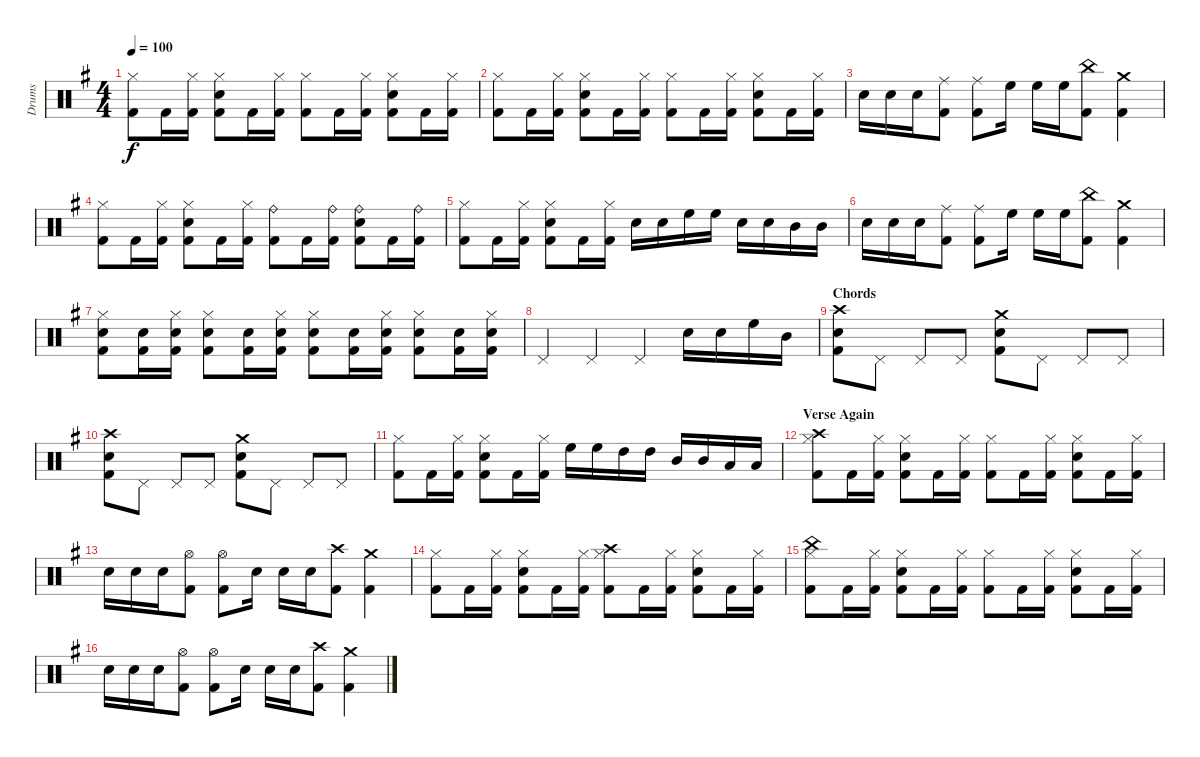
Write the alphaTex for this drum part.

\track ("Drums" "Drums") {instrument percussion}
\staff {score}
\articulation defaults
\ts (4 4)
\tempo 100
\clef neutral
\ks eminor
("Hi-Hat (closed)" "Kick (hit) 2").8{dy f} "Kick (hit) 2".16 ("Hi-Hat (closed)" "Kick (hit) 2").16 ("Hi-Hat (closed)" "Kick (hit) 2" "Snare (hit) 2").8 "Kick (hit) 2".16 ("Hi-Hat (closed)" "Kick (hit) 2").16 ("Hi-Hat (closed)" "Kick (hit) 2").8 "Kick (hit) 2".16 ("Hi-Hat (closed)" "Kick (hit) 2").16 ("Hi-Hat (closed)" "Kick (hit) 2" "Snare (hit) 2").8 "Kick (hit) 2".16 ("Hi-Hat (closed)" "Kick (hit) 2").16 |
("Hi-Hat (closed)" "Kick (hit) 2").8 "Kick (hit) 2".16 ("Hi-Hat (closed)" "Kick (hit) 2").16 ("Hi-Hat (closed)" "Kick (hit) 2" "Snare (hit) 2").8 "Kick (hit) 2".16 ("Hi-Hat (closed)" "Kick (hit) 2").16 ("Hi-Hat (closed)" "Kick (hit) 2").8 "Kick (hit) 2".16 ("Hi-Hat (closed)" "Kick (hit) 2").16 ("Hi-Hat (closed)" "Kick (hit) 2" "Snare (hit) 2").8 "Kick (hit) 2".16 ("Hi-Hat (closed)" "Kick (hit) 2").16 |
"Snare (hit) 2".16 "Snare (hit) 2".16 "Snare (hit) 2".16 ("Ride (middle)" "Kick (hit) 2").8 ("Ride (middle)" "Kick (hit) 2").8 "High Floor Tom (hit)".16 "High Floor Tom (hit)".16 "High Floor Tom (hit)".16 ("China (hit)" "Kick (hit) 2").8 ("Crash medium (hit)" "Kick (hit) 2").4 |
("Hi-Hat (closed)" "Kick (hit) 2").8 "Kick (hit) 2".16 ("Hi-Hat (closed)" "Kick (hit) 2").16 ("Hi-Hat (closed)" "Kick (hit) 2" "Snare (hit) 2").8 "Kick (hit) 2".16 ("Hi-Hat (closed)" "Kick (hit) 2").16 ("Ride (bell)" "Kick (hit) 2").8 "Kick (hit) 2".16 ("Ride (bell)" "Kick (hit) 2").16 ("Ride (bell)" "Kick (hit) 2" "Snare (hit) 2").8 "Kick (hit) 2".16 ("Ride (bell)" "Kick (hit) 2").16 |
("Hi-Hat (closed)" "Kick (hit) 2").8 "Kick (hit) 2".16 ("Hi-Hat (closed)" "Kick (hit) 2").16 ("Hi-Hat (closed)" "Kick (hit) 2" "Snare (hit) 2").8 "Kick (hit) 2".16 ("Hi-Hat (closed)" "Kick (hit) 2").16 "Snare (hit) 2".16 "Snare (hit) 2".16 "High Floor Tom (hit)".16 "High Floor Tom (hit)".16 "Snare (hit) 2".16 "Snare (hit) 2".16 "Mid Tom (hit)".16 "Mid Tom (hit)".16 |
"Snare (hit) 2".16 "Snare (hit) 2".16 "Snare (hit) 2".16 ("Ride (middle)" "Kick (hit) 2").8 ("Ride (middle)" "Kick (hit) 2").8 "High Floor Tom (hit)".16 "High Floor Tom (hit)".16 "High Floor Tom (hit)".16 ("China (hit)" "Kick (hit) 2").8 ("Crash medium (hit)" "Kick (hit) 2").4 |
("Hi-Hat (closed)" "Kick (hit) 2" "Snare (hit) 2").8 ("Kick (hit) 2" "Snare (hit) 2").16 ("Hi-Hat (closed)" "Kick (hit) 2" "Snare (hit) 2").16 ("Hi-Hat (closed)" "Kick (hit) 2" "Snare (hit) 2").8 ("Kick (hit) 2" "Snare (hit) 2").16 ("Hi-Hat (closed)" "Kick (hit) 2" "Snare (hit) 2").16 ("Hi-Hat (closed)" "Kick (hit) 2" "Snare (hit) 2").8 ("Kick (hit) 2" "Snare (hit) 2").16 ("Hi-Hat (closed)" "Kick (hit) 2" "Snare (hit) 2").16 ("Hi-Hat (closed)" "Kick (hit) 2" "Snare (hit) 2").8 ("Kick (hit) 2" "Snare (hit) 2").16 ("Hi-Hat (closed)" "Kick (hit) 2" "Snare (hit) 2").16 |
"Pedal Hi-Hat (hit)".4 "Pedal Hi-Hat (hit)".4 "Pedal Hi-Hat (hit)".4 "Snare (hit) 2".16 "Snare (hit) 2".16 "High Floor Tom (hit)".16 "Mid Tom (hit)".16 |
\section ("" "Chords")
("Crash high (hit)" "Snare (hit) 2" "Kick (hit) 2").8 "Pedal Hi-Hat (hit)".8 "Pedal Hi-Hat (hit)".8 "Pedal Hi-Hat (hit)".8 ("Crash medium (hit)" "Snare (hit) 2" "Kick (hit) 2").8 "Pedal Hi-Hat (hit)".8 "Pedal Hi-Hat (hit)".8 "Pedal Hi-Hat (hit)".8 |
("Crash high (hit)" "Snare (hit) 2" "Kick (hit) 2").8 "Pedal Hi-Hat (hit)".8 "Pedal Hi-Hat (hit)".8 "Pedal Hi-Hat (hit)".8 ("Crash medium (hit)" "Snare (hit) 2" "Kick (hit) 2").8 "Pedal Hi-Hat (hit)".8 "Pedal Hi-Hat (hit)".8 "Pedal Hi-Hat (hit)".8 |
("Hi-Hat (closed)" "Kick (hit) 2").8 "Kick (hit) 2".16 ("Hi-Hat (closed)" "Kick (hit) 2").16 ("Hi-Hat (closed)" "Kick (hit) 2" "Snare (hit) 2").8 "Kick (hit) 2".16 ("Hi-Hat (closed)" "Kick (hit) 2").16 "High Floor Tom (hit)".16 "High Floor Tom (hit)".16 "High Tom (hit)".16 "High Tom (hit)".16 "Mid Tom (hit)".16 "Mid Tom (hit)".16 "Low Tom (hit)".16 "Low Tom (hit)".16 |
\section ("" "Verse Again")
("Hi-Hat (closed)" "Kick (hit) 2" "Crash high (hit)").8 "Kick (hit) 2".16 ("Hi-Hat (closed)" "Kick (hit) 2").16 ("Hi-Hat (closed)" "Kick (hit) 2" "Snare (hit) 2").8 "Kick (hit) 2".16 ("Hi-Hat (closed)" "Kick (hit) 2").16 ("Hi-Hat (closed)" "Kick (hit) 2").8 "Kick (hit) 2".16 ("Hi-Hat (closed)" "Kick (hit) 2").16 ("Hi-Hat (closed)" "Kick (hit) 2" "Snare (hit) 2").8 "Kick (hit) 2".16 ("Hi-Hat (closed)" "Kick (hit) 2").16 |
"Snare (hit) 2".16 "Snare (hit) 2".16 "Snare (hit) 2".16 ("Hi-Hat (open)" "Kick (hit) 2").8 ("Hi-Hat (open)" "Kick (hit) 2").8 "Snare (hit) 2".16 "Snare (hit) 2".16 "Snare (hit) 2".16 ("Crash high (hit)" "Kick (hit) 2").8 ("Crash medium (hit)" "Kick (hit) 2").4 |
("Hi-Hat (closed)" "Kick (hit) 2").8 "Kick (hit) 2".16 ("Hi-Hat (closed)" "Kick (hit) 2").16 ("Hi-Hat (closed)" "Kick (hit) 2" "Snare (hit) 2").8 "Kick (hit) 2".16 ("Hi-Hat (closed)" "Kick (hit) 2").16 ("Hi-Hat (closed)" "Kick (hit) 2" "Crash high (hit)").8 "Kick (hit) 2".16 ("Hi-Hat (closed)" "Kick (hit) 2").16 ("Hi-Hat (closed)" "Kick (hit) 2" "Snare (hit) 2").8 "Kick (hit) 2".16 ("Hi-Hat (closed)" "Kick (hit) 2").16 |
("Hi-Hat (closed)" "Kick (hit) 2" "China (hit)").8 "Kick (hit) 2".16 ("Hi-Hat (closed)" "Kick (hit) 2").16 ("Hi-Hat (closed)" "Kick (hit) 2" "Snare (hit) 2").8 "Kick (hit) 2".16 ("Hi-Hat (closed)" "Kick (hit) 2").16 ("Hi-Hat (closed)" "Kick (hit) 2").8 "Kick (hit) 2".16 ("Hi-Hat (closed)" "Kick (hit) 2").16 ("Hi-Hat (closed)" "Kick (hit) 2" "Snare (hit) 2").8 "Kick (hit) 2".16 ("Hi-Hat (closed)" "Kick (hit) 2").16 |
"Snare (hit) 2".16 "Snare (hit) 2".16 "Snare (hit) 2".16 ("Hi-Hat (open)" "Kick (hit) 2").8 ("Hi-Hat (open)" "Kick (hit) 2").8 "Snare (hit) 2".16 "Snare (hit) 2".16 "Snare (hit) 2".16 ("Crash high (hit)" "Kick (hit) 2").8 ("Crash medium (hit)" "Kick (hit) 2").4
